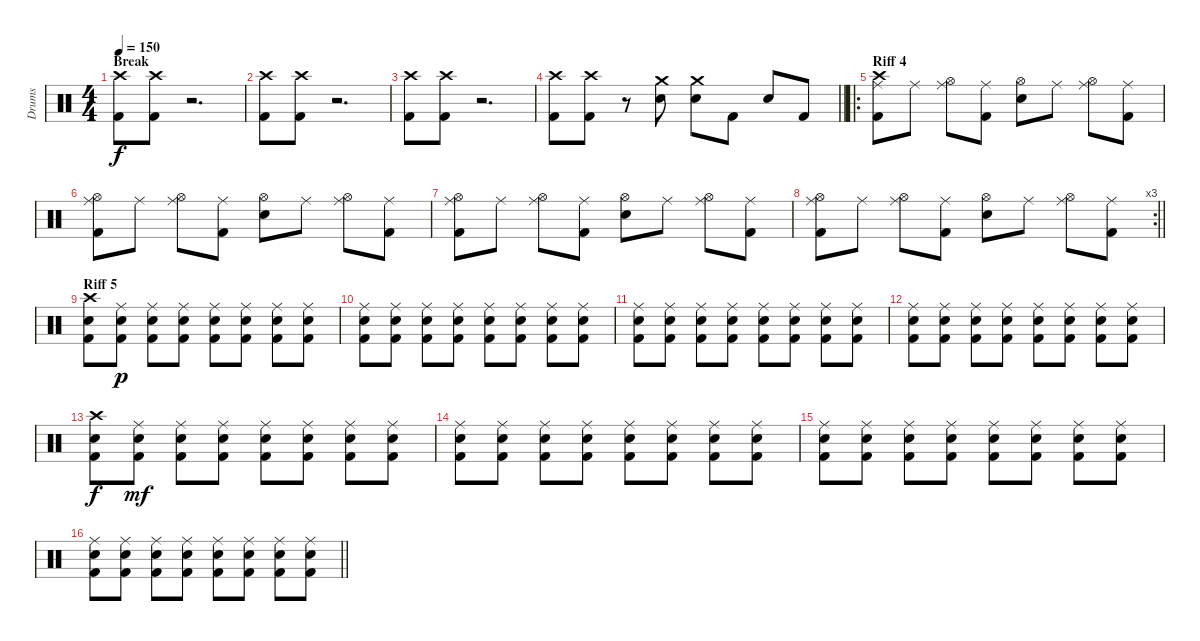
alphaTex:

\track ("Drums" "Drums") {instrument percussion}
\staff {score}
\articulation defaults
\ts (4 4)
\section ("" "Break")
\tempo 150
\clef neutral
\ks c
("Crash high (hit)" "Kick (hit) 2").8{dy f} ("Crash high (hit)" "Kick (hit) 2").8 r.2{d volume 0} |
("Crash high (hit)" "Kick (hit) 2").8{volume 13} ("Crash high (hit)" "Kick (hit) 2").8 r.2{d volume 0} |
("Crash high (hit)" "Kick (hit) 2").8{volume 13} ("Crash high (hit)" "Kick (hit) 2").8 r.2{d volume 0} |
\barLineRight lightlight
("Crash high (hit)" "Kick (hit) 2").8{volume 13} ("Crash high (hit)" "Kick (hit) 2").8 r.8{volume 0} ("Crash medium (hit)" "Electric Snare (hit)").8{volume 13} ("Crash medium (hit)" "Electric Snare (hit)").8 "Kick (hit) 2".8 "Electric Snare (hit)".8 "Kick (hit) 2".8 |
\ro
\section ("" "Riff 4")
("Crash high (hit)" "Ride (middle)" "Kick (hit) 2").8 "Ride (middle)".8 ("Hi-Hat (open)" "Ride (middle)").8 ("Ride (middle)" "Kick (hit) 2").8 ("Hi-Hat (open)" "Electric Snare (hit)").8 "Ride (middle)".8 ("Hi-Hat (open)" "Ride (middle)").8 ("Ride (middle)" "Kick (hit) 2").8 |
("Hi-Hat (open)" "Ride (middle)" "Kick (hit) 2").8 "Ride (middle)".8 ("Hi-Hat (open)" "Ride (middle)").8 ("Ride (middle)" "Kick (hit) 2").8 ("Hi-Hat (open)" "Electric Snare (hit)").8 "Ride (middle)".8 ("Hi-Hat (open)" "Ride (middle)").8 ("Ride (middle)" "Kick (hit) 2").8 |
("Hi-Hat (open)" "Ride (middle)" "Kick (hit) 2").8 "Ride (middle)".8 ("Hi-Hat (open)" "Ride (middle)").8 ("Ride (middle)" "Kick (hit) 2").8 ("Hi-Hat (open)" "Electric Snare (hit)").8 "Ride (middle)".8 ("Hi-Hat (open)" "Ride (middle)").8 ("Ride (middle)" "Kick (hit) 2").8 |
\rc 3
\barLineRight lightlight
("Hi-Hat (open)" "Ride (middle)" "Kick (hit) 2").8 "Ride (middle)".8 ("Hi-Hat (open)" "Ride (middle)").8 ("Ride (middle)" "Kick (hit) 2").8 ("Hi-Hat (open)" "Electric Snare (hit)").8 "Ride (middle)".8 ("Hi-Hat (open)" "Ride (middle)").8 ("Ride (middle)" "Kick (hit) 2").8 |
\section ("" "Riff 5")
("Crash high (hit)" "Electric Snare (hit)" "Kick (hit) 2").8 ("Ride (middle)" "Electric Snare (hit)" "Kick (hit) 2").8{dy p} ("Ride (middle)" "Electric Snare (hit)" "Kick (hit) 2").8 ("Ride (middle)" "Electric Snare (hit)" "Kick (hit) 2").8 ("Ride (middle)" "Electric Snare (hit)" "Kick (hit) 2").8 ("Ride (middle)" "Electric Snare (hit)" "Kick (hit) 2").8 ("Ride (middle)" "Electric Snare (hit)" "Kick (hit) 2").8 ("Ride (middle)" "Electric Snare (hit)" "Kick (hit) 2").8 |
("Ride (middle)" "Electric Snare (hit)" "Kick (hit) 2").8 ("Ride (middle)" "Electric Snare (hit)" "Kick (hit) 2").8 ("Ride (middle)" "Electric Snare (hit)" "Kick (hit) 2").8 ("Ride (middle)" "Electric Snare (hit)" "Kick (hit) 2").8 ("Ride (middle)" "Electric Snare (hit)" "Kick (hit) 2").8 ("Ride (middle)" "Electric Snare (hit)" "Kick (hit) 2").8 ("Ride (middle)" "Electric Snare (hit)" "Kick (hit) 2").8 ("Ride (middle)" "Electric Snare (hit)" "Kick (hit) 2").8 |
("Ride (middle)" "Electric Snare (hit)" "Kick (hit) 2").8 ("Ride (middle)" "Electric Snare (hit)" "Kick (hit) 2").8 ("Ride (middle)" "Electric Snare (hit)" "Kick (hit) 2").8 ("Ride (middle)" "Electric Snare (hit)" "Kick (hit) 2").8 ("Ride (middle)" "Electric Snare (hit)" "Kick (hit) 2").8 ("Ride (middle)" "Electric Snare (hit)" "Kick (hit) 2").8 ("Ride (middle)" "Electric Snare (hit)" "Kick (hit) 2").8 ("Ride (middle)" "Electric Snare (hit)" "Kick (hit) 2").8 |
("Ride (middle)" "Electric Snare (hit)" "Kick (hit) 2").8 ("Ride (middle)" "Electric Snare (hit)" "Kick (hit) 2").8 ("Ride (middle)" "Electric Snare (hit)" "Kick (hit) 2").8 ("Ride (middle)" "Electric Snare (hit)" "Kick (hit) 2").8 ("Ride (middle)" "Electric Snare (hit)" "Kick (hit) 2").8 ("Ride (middle)" "Electric Snare (hit)" "Kick (hit) 2").8 ("Ride (middle)" "Electric Snare (hit)" "Kick (hit) 2").8 ("Ride (middle)" "Electric Snare (hit)" "Kick (hit) 2").8 |
("Crash high (hit)" "Electric Snare (hit)" "Kick (hit) 2").8{dy f} ("Ride (middle)" "Electric Snare (hit)" "Kick (hit) 2").8{dy mf} ("Ride (middle)" "Electric Snare (hit)" "Kick (hit) 2").8 ("Ride (middle)" "Electric Snare (hit)" "Kick (hit) 2").8 ("Ride (middle)" "Electric Snare (hit)" "Kick (hit) 2").8 ("Ride (middle)" "Electric Snare (hit)" "Kick (hit) 2").8 ("Ride (middle)" "Electric Snare (hit)" "Kick (hit) 2").8 ("Ride (middle)" "Electric Snare (hit)" "Kick (hit) 2").8 |
("Ride (middle)" "Electric Snare (hit)" "Kick (hit) 2").8 ("Ride (middle)" "Electric Snare (hit)" "Kick (hit) 2").8 ("Ride (middle)" "Electric Snare (hit)" "Kick (hit) 2").8 ("Ride (middle)" "Electric Snare (hit)" "Kick (hit) 2").8 ("Ride (middle)" "Electric Snare (hit)" "Kick (hit) 2").8 ("Ride (middle)" "Electric Snare (hit)" "Kick (hit) 2").8 ("Ride (middle)" "Electric Snare (hit)" "Kick (hit) 2").8 ("Ride (middle)" "Electric Snare (hit)" "Kick (hit) 2").8 |
("Ride (middle)" "Electric Snare (hit)" "Kick (hit) 2").8 ("Ride (middle)" "Electric Snare (hit)" "Kick (hit) 2").8 ("Ride (middle)" "Electric Snare (hit)" "Kick (hit) 2").8 ("Ride (middle)" "Electric Snare (hit)" "Kick (hit) 2").8 ("Ride (middle)" "Electric Snare (hit)" "Kick (hit) 2").8 ("Ride (middle)" "Electric Snare (hit)" "Kick (hit) 2").8 ("Ride (middle)" "Electric Snare (hit)" "Kick (hit) 2").8 ("Ride (middle)" "Electric Snare (hit)" "Kick (hit) 2").8 |
\barLineRight lightlight
("Ride (middle)" "Electric Snare (hit)" "Kick (hit) 2").8 ("Ride (middle)" "Electric Snare (hit)" "Kick (hit) 2").8 ("Ride (middle)" "Electric Snare (hit)" "Kick (hit) 2").8 ("Ride (middle)" "Electric Snare (hit)" "Kick (hit) 2").8 ("Ride (middle)" "Electric Snare (hit)" "Kick (hit) 2").8 ("Ride (middle)" "Electric Snare (hit)" "Kick (hit) 2").8 ("Ride (middle)" "Electric Snare (hit)" "Kick (hit) 2").8 ("Ride (middle)" "Electric Snare (hit)" "Kick (hit) 2").8
